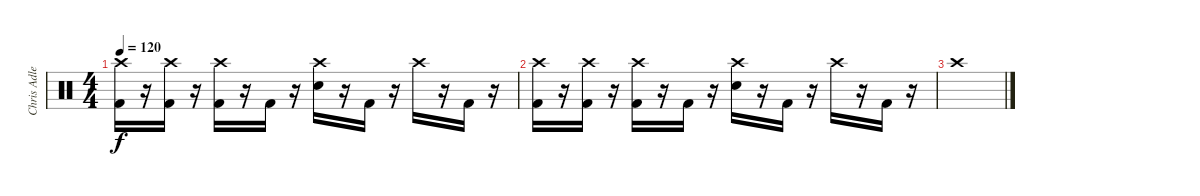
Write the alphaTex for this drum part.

\track ("Chris Adler" "Chris Adle") {instrument percussion}
\staff {score}
\articulation defaults
\ts (4 4)
\tempo 120
\clef neutral
\ks c
("Crash high (hit)" "Kick (hit) 2").16{dy f} r.16 ("Crash high (hit)" "Kick (hit) 2").16 r.16 ("Crash high (hit)" "Kick (hit) 2").16 r.16 "Kick (hit) 2".16 r.16 ("Crash high (hit)" "Electric Snare (hit)").16 r.16 "Kick (hit) 2".16 r.16 "Crash high (hit)".16 r.16 "Kick (hit) 2".16 r.16 |
("Crash high (hit)" "Kick (hit) 2").16 r.16 ("Crash high (hit)" "Kick (hit) 2").16 r.16 ("Crash high (hit)" "Kick (hit) 2").16 r.16 "Kick (hit) 2".16 r.16 ("Crash high (hit)" "Electric Snare (hit)").16 r.16 "Kick (hit) 2".16 r.16 "Crash high (hit)".16 r.16 "Kick (hit) 2".16 r.16 |
"Crash high (hit)".1
